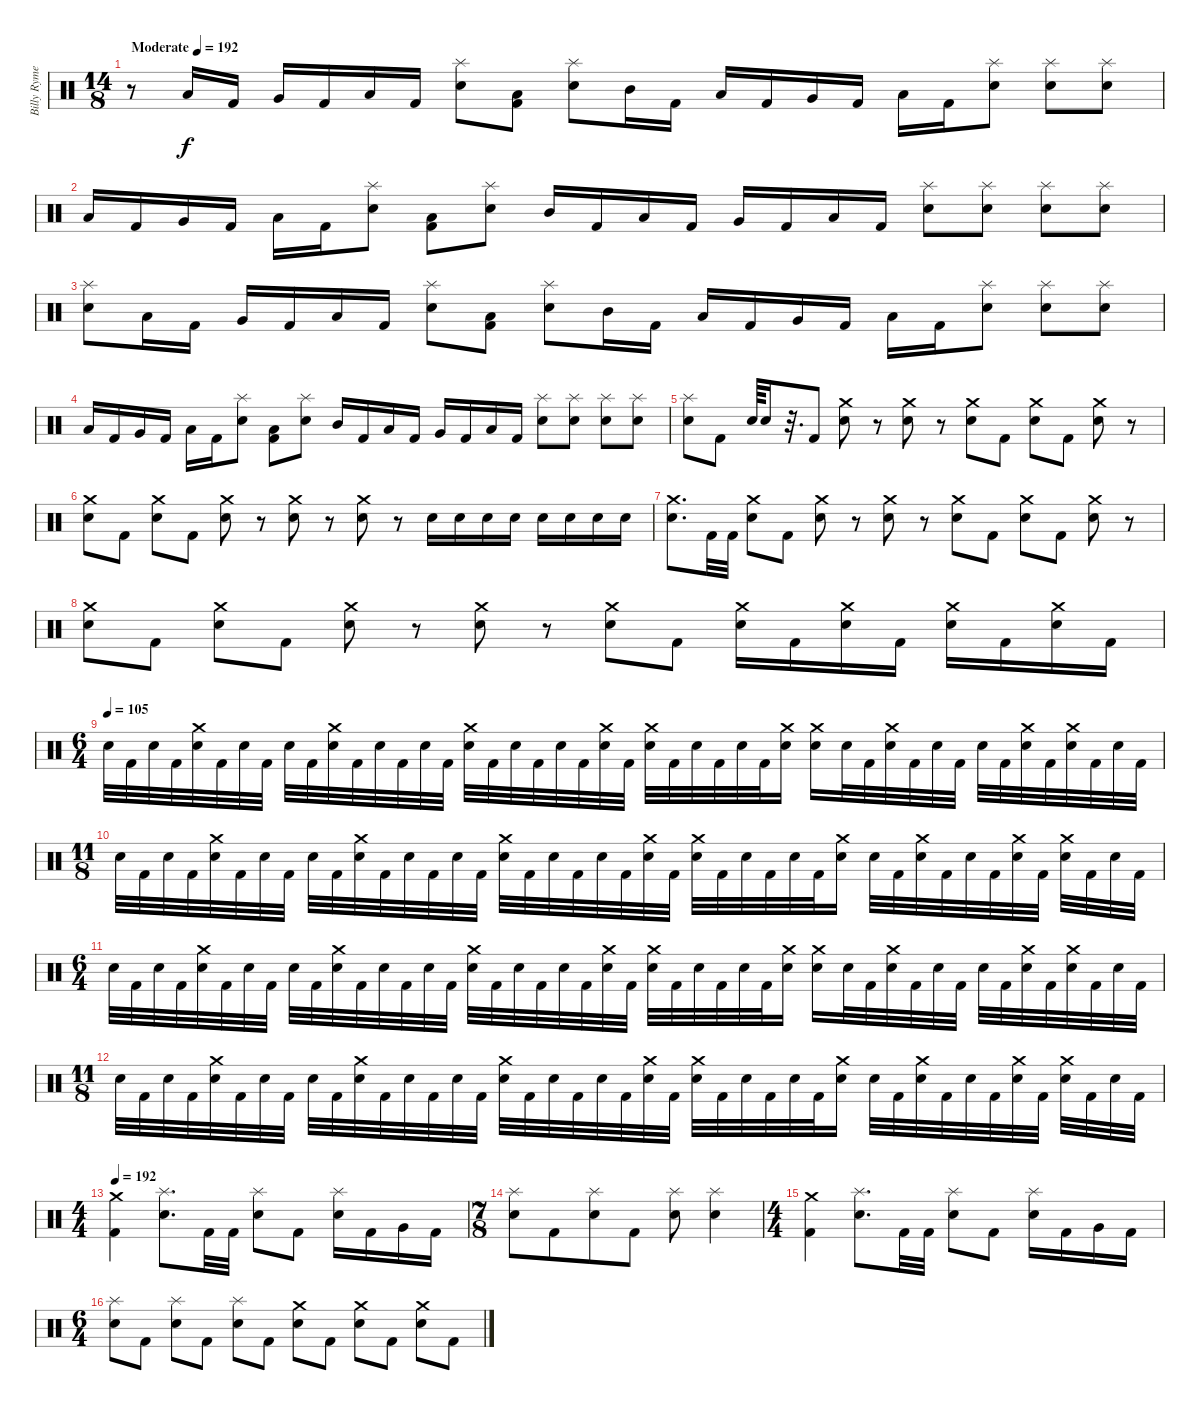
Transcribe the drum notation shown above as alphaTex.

\track ("Billy Rymer" "Billy Ryme") {instrument percussion}
\staff {score}
\articulation defaults
\ts (14 8)
\tempo (192 "Moderate")
\clef neutral
\ks c
r.8{dy f} "Low Tom (hit)".16 "Kick (hit) 2".16 "Very Low Tom (hit)".16 "Kick (hit) 2".16 "Low Floor Tom (hit)".16 "Kick (hit) 2".16 ("Splash (hit)" "Electric Snare (hit)").8 ("Low Floor Tom (hit)" "Kick (hit) 2").8 ("Splash (hit)" "Electric Snare (hit)").8 "Mid Tom (hit)".16 "Kick (hit) 2".16 "Low Tom (hit)".16 "Kick (hit) 2".16 "Very Low Tom (hit)".16 "Kick (hit) 2".16 "Low Floor Tom (hit)".16 "Kick (hit) 2".16 ("Splash (hit)" "Electric Snare (hit)").8 ("Splash (hit)" "Electric Snare (hit)").8 ("Splash (hit)" "Electric Snare (hit)").8 |
"Low Tom (hit)".16 "Kick (hit) 2".16 "Very Low Tom (hit)".16 "Kick (hit) 2".16 "Low Floor Tom (hit)".16 "Kick (hit) 2".16 ("Splash (hit)" "Electric Snare (hit)").8 ("Low Floor Tom (hit)" "Kick (hit) 2").8 ("Splash (hit)" "Electric Snare (hit)").8 "Mid Tom (hit)".16 "Kick (hit) 2".16 "Low Tom (hit)".16 "Kick (hit) 2".16 "Very Low Tom (hit)".16 "Kick (hit) 2".16 "Low Floor Tom (hit)".16 "Kick (hit) 2".16 ("Splash (hit)" "Electric Snare (hit)").8 ("Splash (hit)" "Electric Snare (hit)").8 ("Splash (hit)" "Electric Snare (hit)").8 ("Splash (hit)" "Electric Snare (hit)").8 |
("Splash (hit)" "Electric Snare (hit)").8 "Low Tom (hit)".16 "Kick (hit) 2".16 "Very Low Tom (hit)".16 "Kick (hit) 2".16 "Low Floor Tom (hit)".16 "Kick (hit) 2".16 ("Splash (hit)" "Electric Snare (hit)").8 ("Low Floor Tom (hit)" "Kick (hit) 2").8 ("Splash (hit)" "Electric Snare (hit)").8 "Mid Tom (hit)".16 "Kick (hit) 2".16 "Low Tom (hit)".16 "Kick (hit) 2".16 "Very Low Tom (hit)".16 "Kick (hit) 2".16 "Low Floor Tom (hit)".16 "Kick (hit) 2".16 ("Splash (hit)" "Electric Snare (hit)").8 ("Splash (hit)" "Electric Snare (hit)").8 ("Splash (hit)" "Electric Snare (hit)").8 |
"Low Tom (hit)".16 "Kick (hit) 2".16 "Very Low Tom (hit)".16 "Kick (hit) 2".16 "Low Floor Tom (hit)".16 "Kick (hit) 2".16 ("Splash (hit)" "Electric Snare (hit)").8 ("Low Floor Tom (hit)" "Kick (hit) 2").8 ("Splash (hit)" "Electric Snare (hit)").8 "Mid Tom (hit)".16 "Kick (hit) 2".16 "Low Tom (hit)".16 "Kick (hit) 2".16 "Very Low Tom (hit)".16 "Kick (hit) 2".16 "Low Floor Tom (hit)".16 "Kick (hit) 2".16 ("Splash (hit)" "Electric Snare (hit)").8 ("Splash (hit)" "Electric Snare (hit)").8 ("Splash (hit)" "Electric Snare (hit)").8 ("Splash (hit)" "Electric Snare (hit)").8 |
("Splash (hit)" "Electric Snare (hit)").8 "Kick (hit) 2".8 "Electric Snare (hit)".64 "Electric Snare (hit)".16 r.32{d} "Kick (hit) 2".8 ("Crash medium (hit)" "Electric Snare (hit)").8 r.8 ("Crash medium (hit)" "Electric Snare (hit)").8 r.8 ("Crash medium (hit)" "Electric Snare (hit)").8 "Kick (hit) 2".8 ("Crash medium (hit)" "Electric Snare (hit)").8 "Kick (hit) 2".8 ("Crash medium (hit)" "Electric Snare (hit)").8 r.8 |
("Crash medium (hit)" "Electric Snare (hit)").8 "Kick (hit) 2".8 ("Crash medium (hit)" "Electric Snare (hit)").8 "Kick (hit) 2".8 ("Crash medium (hit)" "Electric Snare (hit)").8 r.8 ("Crash medium (hit)" "Electric Snare (hit)").8 r.8 ("Crash medium (hit)" "Electric Snare (hit)").8 r.8 "Electric Snare (hit)".16 "Electric Snare (hit)".16 "Electric Snare (hit)".16 "Electric Snare (hit)".16 "Electric Snare (hit)".16 "Electric Snare (hit)".16 "Electric Snare (hit)".16 "Electric Snare (hit)".16 |
("Crash medium (hit)" "Electric Snare (hit)").8{d} "Kick (hit) 2".32 "Kick (hit) 2".32 ("Crash medium (hit)" "Electric Snare (hit)").8 "Kick (hit) 2".8 ("Crash medium (hit)" "Electric Snare (hit)").8 r.8 ("Crash medium (hit)" "Electric Snare (hit)").8 r.8 ("Crash medium (hit)" "Electric Snare (hit)").8 "Kick (hit) 2".8 ("Crash medium (hit)" "Electric Snare (hit)").8 "Kick (hit) 2".8 ("Crash medium (hit)" "Electric Snare (hit)").8 r.8 |
("Crash medium (hit)" "Electric Snare (hit)").8 "Kick (hit) 2".8 ("Crash medium (hit)" "Electric Snare (hit)").8 "Kick (hit) 2".8 ("Crash medium (hit)" "Electric Snare (hit)").8 r.8 ("Crash medium (hit)" "Electric Snare (hit)").8 r.8 ("Crash medium (hit)" "Electric Snare (hit)").8 "Kick (hit) 2".8 ("Crash medium (hit)" "Electric Snare (hit)").16 "Kick (hit) 2".16 ("Crash medium (hit)" "Electric Snare (hit)").16 "Kick (hit) 2".16 ("Crash medium (hit)" "Electric Snare (hit)").16 "Kick (hit) 2".16 ("Crash medium (hit)" "Electric Snare (hit)").16 "Kick (hit) 2".16 |
\ts (6 4)
\tempo (105)
"Electric Snare (hit)".32 "Kick (hit) 2".32 "Electric Snare (hit)".32 "Kick (hit) 2".32 ("Crash medium (hit)" "Electric Snare (hit)").32 "Kick (hit) 2".32 "Electric Snare (hit)".32 "Kick (hit) 2".32 "Electric Snare (hit)".32 "Kick (hit) 2".32 ("Crash medium (hit)" "Electric Snare (hit)").32 "Kick (hit) 2".32 "Electric Snare (hit)".32 "Kick (hit) 2".32 "Electric Snare (hit)".32 "Kick (hit) 2".32 ("Crash medium (hit)" "Electric Snare (hit)").32 "Kick (hit) 2".32 "Electric Snare (hit)".32 "Kick (hit) 2".32 "Electric Snare (hit)".32 "Kick (hit) 2".32 ("Crash medium (hit)" "Electric Snare (hit)").32 "Kick (hit) 2".32 ("Crash medium (hit)" "Electric Snare (hit)").32 "Kick (hit) 2".32 "Electric Snare (hit)".32 "Kick (hit) 2".32 "Electric Snare (hit)".32 "Kick (hit) 2".32 ("Crash medium (hit)" "Electric Snare (hit)").16 ("Crash medium (hit)" "Electric Snare (hit)").16 "Electric Snare (hit)".32 "Kick (hit) 2".32 ("Crash medium (hit)" "Electric Snare (hit)").32 "Kick (hit) 2".32 "Electric Snare (hit)".32 "Kick (hit) 2".32 "Electric Snare (hit)".32 "Kick (hit) 2".32 ("Crash medium (hit)" "Electric Snare (hit)").32 "Kick (hit) 2".32 ("Crash medium (hit)" "Electric Snare (hit)").32 "Kick (hit) 2".32 "Electric Snare (hit)".32 "Kick (hit) 2".32 |
\ts (11 8)
"Electric Snare (hit)".32 "Kick (hit) 2".32 "Electric Snare (hit)".32 "Kick (hit) 2".32 ("Crash medium (hit)" "Electric Snare (hit)").32 "Kick (hit) 2".32 "Electric Snare (hit)".32 "Kick (hit) 2".32 "Electric Snare (hit)".32 "Kick (hit) 2".32 ("Crash medium (hit)" "Electric Snare (hit)").32 "Kick (hit) 2".32 "Electric Snare (hit)".32 "Kick (hit) 2".32 "Electric Snare (hit)".32 "Kick (hit) 2".32 ("Crash medium (hit)" "Electric Snare (hit)").32 "Kick (hit) 2".32 "Electric Snare (hit)".32 "Kick (hit) 2".32 "Electric Snare (hit)".32 "Kick (hit) 2".32 ("Crash medium (hit)" "Electric Snare (hit)").32 "Kick (hit) 2".32 ("Crash medium (hit)" "Electric Snare (hit)").32 "Kick (hit) 2".32 "Electric Snare (hit)".32 "Kick (hit) 2".32 "Electric Snare (hit)".32 "Kick (hit) 2".32 ("Crash medium (hit)" "Electric Snare (hit)").16 "Electric Snare (hit)".32 "Kick (hit) 2".32 ("Crash medium (hit)" "Electric Snare (hit)").32 "Kick (hit) 2".32 "Electric Snare (hit)".32 "Kick (hit) 2".32 ("Crash medium (hit)" "Electric Snare (hit)").32 "Kick (hit) 2".32 ("Crash medium (hit)" "Electric Snare (hit)").32 "Kick (hit) 2".32 "Electric Snare (hit)".32 "Kick (hit) 2".32 |
\ts (6 4)
"Electric Snare (hit)".32 "Kick (hit) 2".32 "Electric Snare (hit)".32 "Kick (hit) 2".32 ("Crash medium (hit)" "Electric Snare (hit)").32 "Kick (hit) 2".32 "Electric Snare (hit)".32 "Kick (hit) 2".32 "Electric Snare (hit)".32 "Kick (hit) 2".32 ("Crash medium (hit)" "Electric Snare (hit)").32 "Kick (hit) 2".32 "Electric Snare (hit)".32 "Kick (hit) 2".32 "Electric Snare (hit)".32 "Kick (hit) 2".32 ("Crash medium (hit)" "Electric Snare (hit)").32 "Kick (hit) 2".32 "Electric Snare (hit)".32 "Kick (hit) 2".32 "Electric Snare (hit)".32 "Kick (hit) 2".32 ("Crash medium (hit)" "Electric Snare (hit)").32 "Kick (hit) 2".32 ("Crash medium (hit)" "Electric Snare (hit)").32 "Kick (hit) 2".32 "Electric Snare (hit)".32 "Kick (hit) 2".32 "Electric Snare (hit)".32 "Kick (hit) 2".32 ("Crash medium (hit)" "Electric Snare (hit)").16 ("Crash medium (hit)" "Electric Snare (hit)").16 "Electric Snare (hit)".32 "Kick (hit) 2".32 ("Crash medium (hit)" "Electric Snare (hit)").32 "Kick (hit) 2".32 "Electric Snare (hit)".32 "Kick (hit) 2".32 "Electric Snare (hit)".32 "Kick (hit) 2".32 ("Crash medium (hit)" "Electric Snare (hit)").32 "Kick (hit) 2".32 ("Crash medium (hit)" "Electric Snare (hit)").32 "Kick (hit) 2".32 "Electric Snare (hit)".32 "Kick (hit) 2".32 |
\ts (11 8)
"Electric Snare (hit)".32 "Kick (hit) 2".32 "Electric Snare (hit)".32 "Kick (hit) 2".32 ("Crash medium (hit)" "Electric Snare (hit)").32 "Kick (hit) 2".32 "Electric Snare (hit)".32 "Kick (hit) 2".32 "Electric Snare (hit)".32 "Kick (hit) 2".32 ("Crash medium (hit)" "Electric Snare (hit)").32 "Kick (hit) 2".32 "Electric Snare (hit)".32 "Kick (hit) 2".32 "Electric Snare (hit)".32 "Kick (hit) 2".32 ("Crash medium (hit)" "Electric Snare (hit)").32 "Kick (hit) 2".32 "Electric Snare (hit)".32 "Kick (hit) 2".32 "Electric Snare (hit)".32 "Kick (hit) 2".32 ("Crash medium (hit)" "Electric Snare (hit)").32 "Kick (hit) 2".32 ("Crash medium (hit)" "Electric Snare (hit)").32 "Kick (hit) 2".32 "Electric Snare (hit)".32 "Kick (hit) 2".32 "Electric Snare (hit)".32 "Kick (hit) 2".32 ("Crash medium (hit)" "Electric Snare (hit)").16 "Electric Snare (hit)".32 "Kick (hit) 2".32 ("Crash medium (hit)" "Electric Snare (hit)").32 "Kick (hit) 2".32 "Electric Snare (hit)".32 "Kick (hit) 2".32 ("Crash medium (hit)" "Electric Snare (hit)").32 "Kick (hit) 2".32 ("Crash medium (hit)" "Electric Snare (hit)").32 "Kick (hit) 2".32 "Electric Snare (hit)".32 "Kick (hit) 2".32 |
\ts (4 4)
\tempo 192
("Crash medium (hit)" "Kick (hit) 2").4 ("Splash (hit)" "Electric Snare (hit)").8{d} "Kick (hit) 2".32 "Kick (hit) 2".32 ("Splash (hit)" "Electric Snare (hit)").8 "Kick (hit) 2".8 ("Splash (hit)" "Electric Snare (hit)").16 "Kick (hit) 2".16 "Very Low Tom (hit)".16 "Kick (hit) 2".16 |
\ts (7 8)
("Splash (hit)" "Electric Snare (hit)").8 "Kick (hit) 2".8 ("Splash (hit)" "Electric Snare (hit)").8 "Kick (hit) 2".8 ("Splash (hit)" "Electric Snare (hit)").8 ("Splash (hit)" "Electric Snare (hit)").4 |
\ts (4 4)
("Crash medium (hit)" "Kick (hit) 2").4 ("Splash (hit)" "Electric Snare (hit)").8{d} "Kick (hit) 2".32 "Kick (hit) 2".32 ("Splash (hit)" "Electric Snare (hit)").8 "Kick (hit) 2".8 ("Splash (hit)" "Electric Snare (hit)").16 "Kick (hit) 2".16 "Very Low Tom (hit)".16 "Kick (hit) 2".16 |
\ts (6 4)
("Splash (hit)" "Electric Snare (hit)").8 "Kick (hit) 2".8 ("Splash (hit)" "Electric Snare (hit)").8 "Kick (hit) 2".8 ("Splash (hit)" "Electric Snare (hit)").8 "Kick (hit) 2".8 ("Crash medium (hit)" "Electric Snare (hit)").8 "Kick (hit) 2".8 ("Crash medium (hit)" "Electric Snare (hit)").8 "Kick (hit) 2".8 ("Crash medium (hit)" "Electric Snare (hit)").8 "Kick (hit) 2".8
